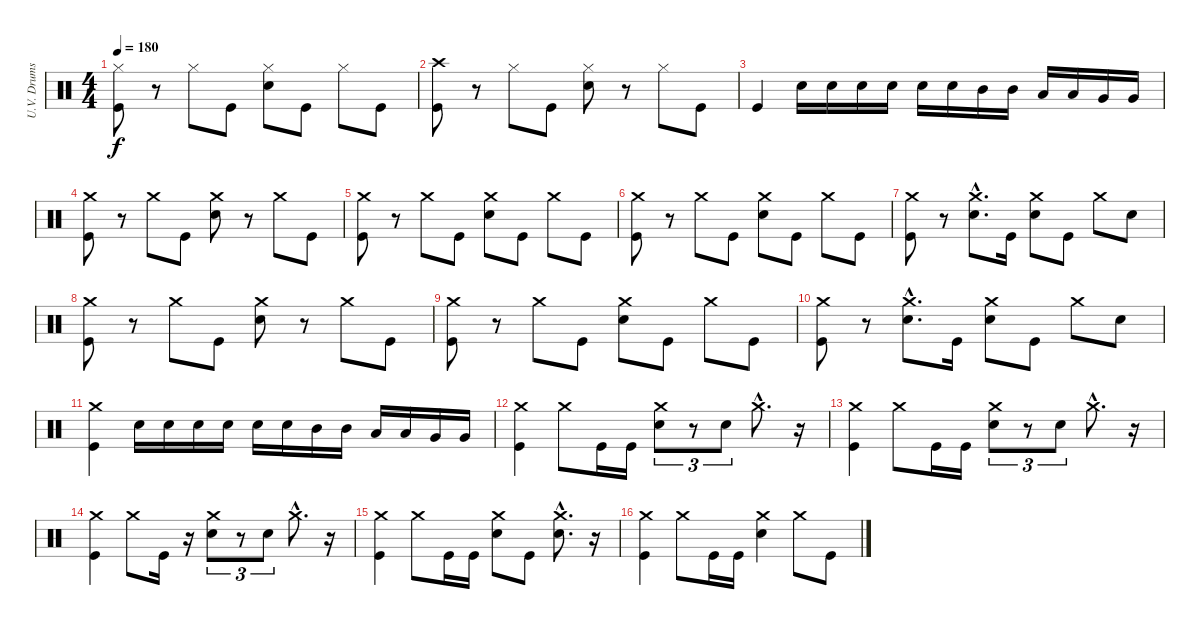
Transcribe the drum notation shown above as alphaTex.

\track ("U.V. Drums" "U.V. Drums") {instrument percussion}
\staff {score}
\articulation defaults
\ts (4 4)
\tempo 180
\clef neutral
\ks c
("Hi-Hat (closed)" "Kick (hit)").8{dy f} r.8 "Hi-Hat (closed)".8 "Kick (hit)".8 ("Hi-Hat (closed)" "Electric Snare (hit)").8 "Kick (hit)".8 "Hi-Hat (closed)".8 "Kick (hit)".8 |
("Crash high (hit)" "Kick (hit)").8 r.8 "Hi-Hat (closed)".8 "Kick (hit)".8 ("Hi-Hat (closed)" "Electric Snare (hit)").8 r.8 "Hi-Hat (closed)".8 "Kick (hit)".8 |
"Kick (hit)".4 "Electric Snare (hit)".16 "Electric Snare (hit)".16 "Electric Snare (hit)".16 "Electric Snare (hit)".16 "Electric Snare (hit)".16 "Electric Snare (hit)".16 "Mid Tom (hit)".16 "Mid Tom (hit)".16 "Low Tom (hit)".16 "Low Tom (hit)".16 "Very Low Tom (hit)".16 "Very Low Tom (hit)".16 |
("Crash medium (hit)" "Kick (hit)").8 r.8 "Crash medium (hit)".8 "Kick (hit)".8 ("Crash medium (hit)" "Electric Snare (hit)").8 r.8 "Crash medium (hit)".8 "Kick (hit)".8 |
("Crash medium (hit)" "Kick (hit)").8 r.8 "Crash medium (hit)".8 "Kick (hit)".8 ("Crash medium (hit)" "Electric Snare (hit)").8 "Kick (hit)".8 "Crash medium (hit)".8 "Kick (hit)".8 |
("Crash medium (hit)" "Kick (hit)").8 r.8 "Crash medium (hit)".8 "Kick (hit)".8 ("Crash medium (hit)" "Electric Snare (hit)").8 "Kick (hit)".8 "Crash medium (hit)".8 "Kick (hit)".8 |
("Crash medium (hit)" "Kick (hit)").8 r.8 ("Crash medium (hit)"{hac} "Electric Snare (hit)"{hac}).8{d} "Kick (hit)".16 ("Crash medium (hit)" "Electric Snare (hit)").8 "Kick (hit)".8 "Crash medium (hit)".8 "Electric Snare (hit)".8 |
("Crash medium (hit)" "Kick (hit)").8 r.8 "Crash medium (hit)".8 "Kick (hit)".8 ("Crash medium (hit)" "Electric Snare (hit)").8 r.8 "Crash medium (hit)".8 "Kick (hit)".8 |
("Crash medium (hit)" "Kick (hit)").8 r.8 "Crash medium (hit)".8 "Kick (hit)".8 ("Crash medium (hit)" "Electric Snare (hit)").8 "Kick (hit)".8 "Crash medium (hit)".8 "Kick (hit)".8 |
("Crash medium (hit)" "Kick (hit)").8 r.8 ("Crash medium (hit)"{hac} "Electric Snare (hit)"{hac}).8{d} "Kick (hit)".16 ("Crash medium (hit)" "Electric Snare (hit)").8 "Kick (hit)".8 "Crash medium (hit)".8 "Electric Snare (hit)".8 |
("Crash medium (hit)" "Kick (hit)").4 "Electric Snare (hit)".16 "Electric Snare (hit)".16 "Electric Snare (hit)".16 "Electric Snare (hit)".16 "Electric Snare (hit)".16 "Electric Snare (hit)".16 "Mid Tom (hit)".16 "Mid Tom (hit)".16 "Low Tom (hit)".16 "Low Tom (hit)".16 "Very Low Tom (hit)".16 "Very Low Tom (hit)".16 |
("Crash medium (hit)" "Kick (hit)").4 "Crash medium (hit)".8 "Kick (hit)".16 "Kick (hit)".16 ("Crash medium (hit)" "Electric Snare (hit)").8{tu (3 2)} r.8{tu (3 2)} "Electric Snare (hit)".8{tu (3 2)} "Crash medium (hit)"{hac}.8{d} r.16 |
("Crash medium (hit)" "Kick (hit)").4 "Crash medium (hit)".8 "Kick (hit)".16 "Kick (hit)".16 ("Crash medium (hit)" "Electric Snare (hit)").8{tu (3 2)} r.8{tu (3 2)} "Electric Snare (hit)".8{tu (3 2)} "Crash medium (hit)"{hac}.8{d} r.16 |
("Crash medium (hit)" "Kick (hit)").4 "Crash medium (hit)".8 "Kick (hit)".16 r.16 ("Crash medium (hit)" "Electric Snare (hit)").8{tu (3 2)} r.8{tu (3 2)} "Electric Snare (hit)".8{tu (3 2)} "Crash medium (hit)"{hac}.8{d} r.16 |
("Crash medium (hit)" "Kick (hit)").4 "Crash medium (hit)".8 "Kick (hit)".16 "Kick (hit)".16 ("Crash medium (hit)" "Electric Snare (hit)").8 "Kick (hit)".8 ("Crash medium (hit)"{hac} "Electric Snare (hit)"{hac}).8{d} r.16 |
("Crash medium (hit)" "Kick (hit)").4 "Crash medium (hit)".8 "Kick (hit)".16 "Kick (hit)".16 ("Crash medium (hit)" "Electric Snare (hit)").4 "Crash medium (hit)".8 "Kick (hit)".8
